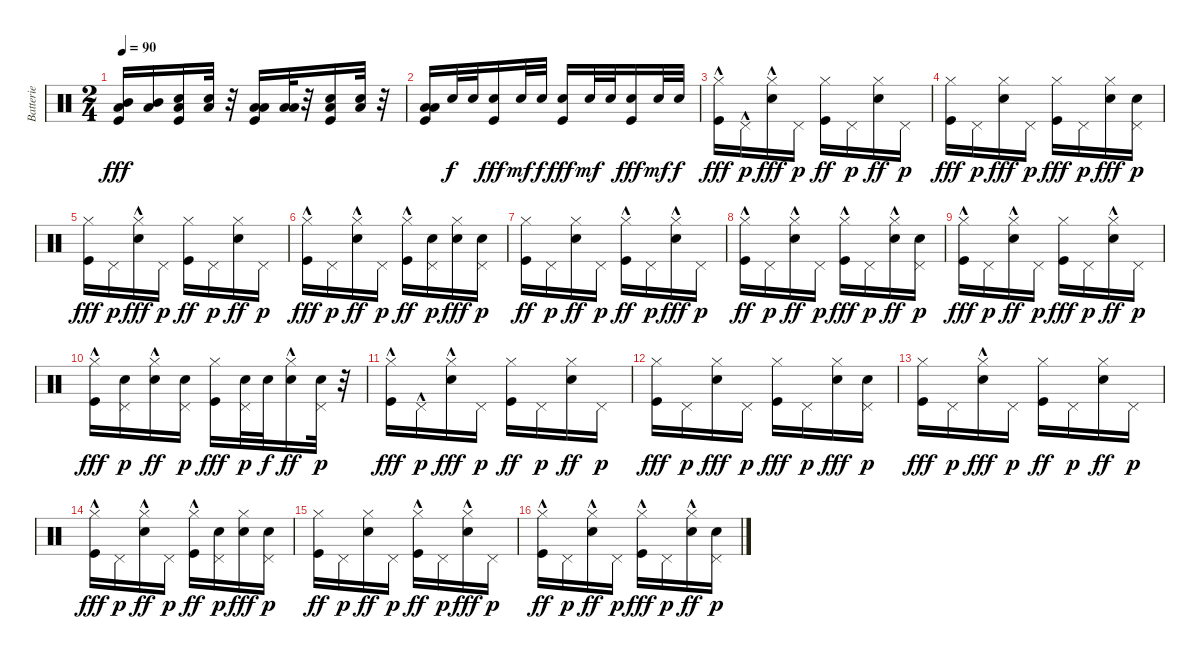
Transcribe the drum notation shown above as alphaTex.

\track ("Batterie" "Batterie") {instrument percussion}
\staff {score}
\articulation defaults
\ts (2 4)
\tempo 90
\clef neutral
\ks c
("Kick (hit)" "Low Floor Tom (hit)" "Mid Tom (hit)").16{dy fff} ("Low Floor Tom (hit)" "Mid Tom (hit)").16 ("Kick (hit)" "Low Floor Tom (hit)" "Snare (hit) 2").16 ("Low Floor Tom (hit)" "Snare (hit) 2").32 r.32 ("Kick (hit)" "Low Floor Tom (hit)" "Low Floor Tom (hit)").16 ("Low Floor Tom (hit)" "Low Floor Tom (hit)").32 r.32 ("Kick (hit)" "Low Floor Tom (hit)" "Snare (hit) 2").16 ("Low Floor Tom (hit)" "Snare (hit) 2").32 r.32 |
("Kick (hit)" "Low Floor Tom (hit)" "Low Tom (hit)").16 "Snare (hit) 2".32{dy f} "Snare (hit) 2".32 ("Kick (hit)" "Snare (hit) 2").16{dy fff} "Snare (hit) 2".32{dy mf} "Snare (hit) 2".32{dy f} ("Kick (hit)" "Snare (hit) 2").16{dy fff} "Snare (hit) 2".32{dy mf} "Snare (hit) 2".32 ("Kick (hit)" "Snare (hit) 2").16{dy fff} "Snare (hit) 2".32{dy mf} "Snare (hit) 2".32{dy f} |
("Kick (hit)" "Hi-Hat (closed)"{hac}).16{dy fff} "Pedal Hi-Hat (hit)"{hac}.16{dy p} ("Snare (hit) 2" "Hi-Hat (closed)"{hac}).16{dy fff} "Pedal Hi-Hat (hit)".16{dy p} ("Kick (hit)" "Hi-Hat (closed)").16{dy ff} "Pedal Hi-Hat (hit)".16{dy p} ("Snare (hit) 2" "Hi-Hat (closed)").16{dy ff} "Pedal Hi-Hat (hit)".16{dy p} |
("Kick (hit)" "Hi-Hat (closed)").16{dy fff} "Pedal Hi-Hat (hit)".16{dy p} ("Snare (hit) 2" "Hi-Hat (closed)").16{dy fff} "Pedal Hi-Hat (hit)".16{dy p} ("Kick (hit)" "Hi-Hat (closed)").16{dy fff} "Pedal Hi-Hat (hit)".16{dy p} ("Snare (hit) 2" "Hi-Hat (closed)").16{dy fff} ("Snare (hit) 2" "Pedal Hi-Hat (hit)").16{dy p} |
("Kick (hit)" "Hi-Hat (closed)").16{dy fff} "Pedal Hi-Hat (hit)".16{dy p} ("Snare (hit) 2" "Hi-Hat (closed)"{hac}).16{dy fff} "Pedal Hi-Hat (hit)".16{dy p} ("Kick (hit)" "Hi-Hat (closed)").16{dy ff} "Pedal Hi-Hat (hit)".16{dy p} ("Snare (hit) 2" "Hi-Hat (closed)").16{dy ff} "Pedal Hi-Hat (hit)".16{dy p} |
("Kick (hit)" "Hi-Hat (closed)"{hac}).16{dy fff} "Pedal Hi-Hat (hit)".16{dy p} ("Snare (hit) 2" "Hi-Hat (closed)"{hac}).16{dy ff} "Pedal Hi-Hat (hit)".16{dy p} ("Kick (hit)" "Hi-Hat (closed)"{hac}).16{dy ff} ("Snare (hit) 2" "Pedal Hi-Hat (hit)").16{dy p} ("Snare (hit) 2" "Hi-Hat (closed)").16{dy fff} ("Snare (hit) 2" "Pedal Hi-Hat (hit)").16{dy p} |
("Kick (hit)" "Hi-Hat (closed)").16{dy ff} "Pedal Hi-Hat (hit)".16{dy p} ("Snare (hit) 2" "Hi-Hat (closed)").16{dy ff} "Pedal Hi-Hat (hit)".16{dy p} ("Kick (hit)" "Hi-Hat (closed)"{hac}).16{dy ff} "Pedal Hi-Hat (hit)".16{dy p} ("Snare (hit) 2" "Hi-Hat (closed)"{hac}).16{dy fff} "Pedal Hi-Hat (hit)".16{dy p} |
("Kick (hit)" "Hi-Hat (closed)"{hac}).16{dy ff} "Pedal Hi-Hat (hit)".16{dy p} ("Snare (hit) 2" "Hi-Hat (closed)"{hac}).16{dy ff} "Pedal Hi-Hat (hit)".16{dy p} ("Kick (hit)" "Hi-Hat (closed)"{hac}).16{dy fff} "Pedal Hi-Hat (hit)".16{dy p} ("Snare (hit) 2" "Hi-Hat (closed)"{hac}).16{dy ff} ("Snare (hit) 2" "Pedal Hi-Hat (hit)").16{dy p} |
("Kick (hit)" "Hi-Hat (closed)"{hac}).16{dy fff} "Pedal Hi-Hat (hit)".16{dy p} ("Snare (hit) 2" "Hi-Hat (closed)"{hac}).16{dy ff} "Pedal Hi-Hat (hit)".16{dy p} ("Kick (hit)" "Hi-Hat (closed)").16{dy fff} "Pedal Hi-Hat (hit)".16{dy p} ("Snare (hit) 2" "Hi-Hat (closed)"{hac}).16{dy ff} "Pedal Hi-Hat (hit)".16{dy p} |
("Kick (hit)" "Hi-Hat (closed)"{hac}).16{dy fff} ("Snare (hit) 2" "Pedal Hi-Hat (hit)").16{dy p} ("Snare (hit) 2" "Hi-Hat (closed)"{hac}).16{dy ff} ("Snare (hit) 2" "Pedal Hi-Hat (hit)").16{dy p} ("Kick (hit)" "Hi-Hat (closed)").16{dy fff} ("Snare (hit) 2" "Pedal Hi-Hat (hit)").32{dy p} "Snare (hit) 2".32{dy f} ("Snare (hit) 2" "Hi-Hat (closed)"{hac}).16{dy ff} ("Snare (hit) 2" "Pedal Hi-Hat (hit)").32{dy p} r.32 |
("Kick (hit)" "Hi-Hat (closed)"{hac}).16{dy fff} "Pedal Hi-Hat (hit)"{hac}.16{dy p} ("Snare (hit) 2" "Hi-Hat (closed)"{hac}).16{dy fff} "Pedal Hi-Hat (hit)".16{dy p} ("Kick (hit)" "Hi-Hat (closed)").16{dy ff} "Pedal Hi-Hat (hit)".16{dy p} ("Snare (hit) 2" "Hi-Hat (closed)").16{dy ff} "Pedal Hi-Hat (hit)".16{dy p} |
("Kick (hit)" "Hi-Hat (closed)").16{dy fff} "Pedal Hi-Hat (hit)".16{dy p} ("Snare (hit) 2" "Hi-Hat (closed)").16{dy fff} "Pedal Hi-Hat (hit)".16{dy p} ("Kick (hit)" "Hi-Hat (closed)").16{dy fff} "Pedal Hi-Hat (hit)".16{dy p} ("Snare (hit) 2" "Hi-Hat (closed)").16{dy fff} ("Snare (hit) 2" "Pedal Hi-Hat (hit)").16{dy p} |
("Kick (hit)" "Hi-Hat (closed)").16{dy fff} "Pedal Hi-Hat (hit)".16{dy p} ("Snare (hit) 2" "Hi-Hat (closed)"{hac}).16{dy fff} "Pedal Hi-Hat (hit)".16{dy p} ("Kick (hit)" "Hi-Hat (closed)").16{dy ff} "Pedal Hi-Hat (hit)".16{dy p} ("Snare (hit) 2" "Hi-Hat (closed)").16{dy ff} "Pedal Hi-Hat (hit)".16{dy p} |
("Kick (hit)" "Hi-Hat (closed)"{hac}).16{dy fff} "Pedal Hi-Hat (hit)".16{dy p} ("Snare (hit) 2" "Hi-Hat (closed)"{hac}).16{dy ff} "Pedal Hi-Hat (hit)".16{dy p} ("Kick (hit)" "Hi-Hat (closed)"{hac}).16{dy ff} ("Snare (hit) 2" "Pedal Hi-Hat (hit)").16{dy p} ("Snare (hit) 2" "Hi-Hat (closed)").16{dy fff} ("Snare (hit) 2" "Pedal Hi-Hat (hit)").16{dy p} |
("Kick (hit)" "Hi-Hat (closed)").16{dy ff} "Pedal Hi-Hat (hit)".16{dy p} ("Snare (hit) 2" "Hi-Hat (closed)").16{dy ff} "Pedal Hi-Hat (hit)".16{dy p} ("Kick (hit)" "Hi-Hat (closed)"{hac}).16{dy ff} "Pedal Hi-Hat (hit)".16{dy p} ("Snare (hit) 2" "Hi-Hat (closed)"{hac}).16{dy fff} "Pedal Hi-Hat (hit)".16{dy p} |
("Kick (hit)" "Hi-Hat (closed)"{hac}).16{dy ff} "Pedal Hi-Hat (hit)".16{dy p} ("Snare (hit) 2" "Hi-Hat (closed)"{hac}).16{dy ff} "Pedal Hi-Hat (hit)".16{dy p} ("Kick (hit)" "Hi-Hat (closed)"{hac}).16{dy fff} "Pedal Hi-Hat (hit)".16{dy p} ("Snare (hit) 2" "Hi-Hat (closed)"{hac}).16{dy ff} ("Snare (hit) 2" "Pedal Hi-Hat (hit)").16{dy p}
